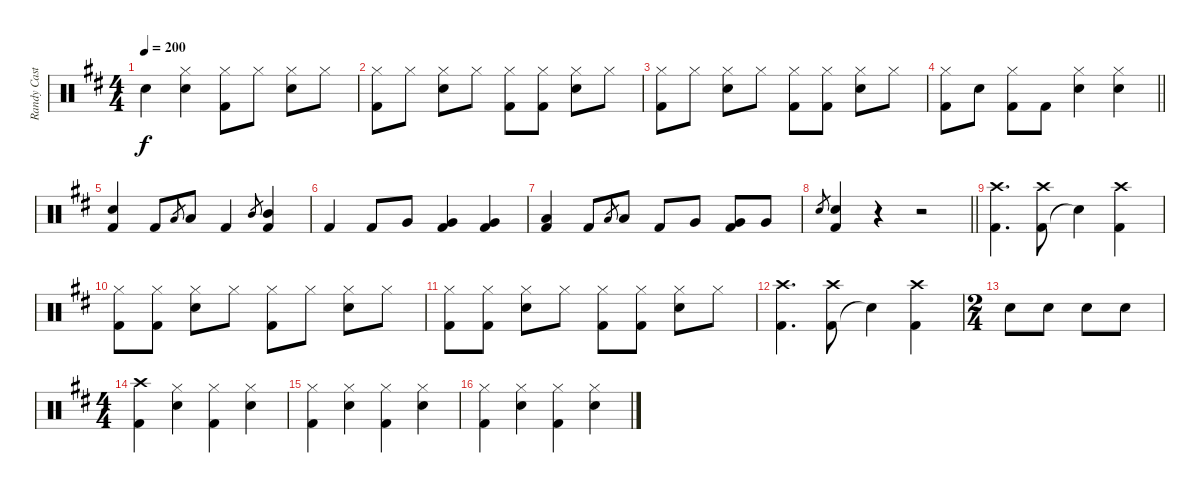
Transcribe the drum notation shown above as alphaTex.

\track ("Randy Castillo" "Randy Cast") {instrument percussion}
\staff {score}
\articulation defaults
\ts (4 4)
\tempo 200
\clef neutral
\ks d "Snare (hit)"{t}.4{dy f}
("Hi-Hat (closed)" "Snare (hit) 2").4 ("Hi-Hat (closed)" "Kick (hit) 2").8 "Hi-Hat (closed)".8 ("Hi-Hat (closed)" "Snare (hit) 2").8 "Hi-Hat (closed)".8 |
("Hi-Hat (closed)" "Kick (hit) 2").8 "Hi-Hat (closed)".8 ("Hi-Hat (closed)" "Snare (hit) 2").8 "Hi-Hat (closed)".8 ("Hi-Hat (closed)" "Kick (hit) 2").8 ("Hi-Hat (closed)" "Kick (hit) 2").8 ("Hi-Hat (closed)" "Snare (hit) 2").8 "Hi-Hat (closed)".8 |
("Hi-Hat (closed)" "Kick (hit) 2").8 "Hi-Hat (closed)".8 ("Hi-Hat (closed)" "Snare (hit) 2").8 "Hi-Hat (closed)".8 ("Hi-Hat (closed)" "Kick (hit) 2").8 ("Hi-Hat (closed)" "Kick (hit) 2").8 ("Hi-Hat (closed)" "Snare (hit) 2").8 "Hi-Hat (closed)".8 |
\barLineRight lightlight
("Hi-Hat (closed)" "Kick (hit) 2").8 "Snare (hit) 2".8 ("Hi-Hat (closed)" "Kick (hit) 2").8 "Kick (hit) 2".8 ("Hi-Hat (closed)" "Snare (hit) 2").4 ("Hi-Hat (closed)" "Snare (hit) 2").4 |
("Snare (hit) 2" "Kick (hit) 2").4 "Kick (hit) 2".8 "Low Tom (hit)".8{gr} "Low Tom (hit)".8 "Kick (hit) 2".4 "Mid Tom (hit)".8{gr} ("Mid Tom (hit)" "Kick (hit) 2").4 |
"Kick (hit) 2".4 "Kick (hit) 2".8 "Very Low Tom (hit)".8 ("Very Low Tom (hit)" "Kick (hit) 2").4 ("Very Low Tom (hit)" "Kick (hit) 2").4 |
("Low Tom (hit)" "Kick (hit) 2").4 "Kick (hit) 2".8 "Low Tom (hit)".8{gr} "Low Tom (hit)".8 "Kick (hit) 2".8 "Very Low Tom (hit)".8 ("Very Low Tom (hit)" "Kick (hit) 2").8 "Very Low Tom (hit)".8 |
\barLineRight lightlight "Snare (hit) 2".8{gr}
("Snare (hit) 2" "Kick (hit) 2").4 r.4 r.2 |
("Kick (hit) 2" "Crash high (hit)").4{d} ("Kick (hit) 2" "Crash high (hit)").8 "Snare (hit)"{t}.4 ("Kick (hit) 2" "Crash high (hit)").4 |
("Hi-Hat (closed)" "Kick (hit) 2").8 ("Hi-Hat (closed)" "Kick (hit) 2").8 ("Hi-Hat (closed)" "Snare (hit) 2").8 "Hi-Hat (closed)".8 ("Hi-Hat (closed)" "Kick (hit) 2").8 "Hi-Hat (closed)".8 ("Hi-Hat (closed)" "Snare (hit) 2").8 "Hi-Hat (closed)".8 |
("Hi-Hat (closed)" "Kick (hit) 2").8 ("Hi-Hat (closed)" "Kick (hit) 2").8 ("Hi-Hat (closed)" "Snare (hit) 2").8 "Hi-Hat (closed)".8 ("Hi-Hat (closed)" "Kick (hit) 2").8 ("Hi-Hat (closed)" "Kick (hit) 2").8 ("Hi-Hat (closed)" "Snare (hit) 2").8 "Hi-Hat (closed)".8 |
("Kick (hit) 2" "Crash high (hit)").4{d} ("Kick (hit) 2" "Crash high (hit)").8 "Snare (hit)"{t}.4 ("Kick (hit) 2" "Crash high (hit)").4 |
\ts (2 4)
"Snare (hit) 2".8 "Snare (hit) 2".8 "Snare (hit) 2".8 "Snare (hit) 2".8 |
\ts (4 4)
("Kick (hit) 2" "Crash high (hit)").4 ("Hi-Hat (closed)" "Snare (hit) 2").4 ("Hi-Hat (closed)" "Kick (hit) 2").4 ("Hi-Hat (closed)" "Snare (hit) 2").4 |
("Hi-Hat (closed)" "Kick (hit) 2").4 ("Hi-Hat (closed)" "Snare (hit) 2").4 ("Hi-Hat (closed)" "Kick (hit) 2").4 ("Hi-Hat (closed)" "Snare (hit) 2").4 |
("Hi-Hat (closed)" "Kick (hit) 2").4 ("Hi-Hat (closed)" "Snare (hit) 2").4 ("Hi-Hat (closed)" "Kick (hit) 2").4 ("Hi-Hat (closed)" "Snare (hit) 2").4
